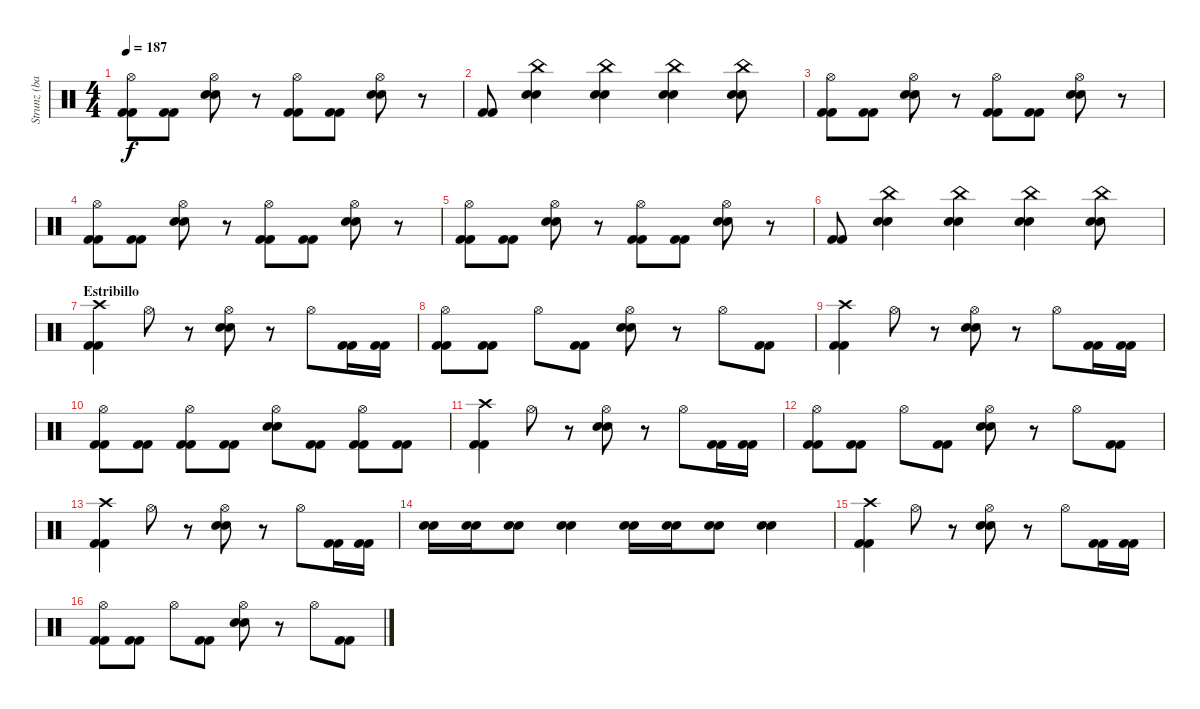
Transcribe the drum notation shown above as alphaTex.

\track ("Strunz (bateria)" "Strunz (ba") {instrument percussion}
\staff {score}
\articulation defaults
\ts (4 4)
\tempo 187
\clef neutral
\ks c
("Hi-Hat (open)" "Kick (hit) 2" "Kick (hit) 2").8{dy f} ("Kick (hit) 2" "Kick (hit) 2").8 ("Hi-Hat (open)" "Snare (hit) 2" "Snare (hit) 2").8 r.8 ("Hi-Hat (open)" "Kick (hit) 2" "Kick (hit) 2").8 ("Kick (hit) 2" "Kick (hit) 2").8 ("Hi-Hat (open)" "Snare (hit) 2" "Snare (hit) 2").8 r.8 |
("Kick (hit) 2" "Kick (hit) 2").8 ("China (hit)" "Snare (hit) 2" "Snare (hit) 2").4 ("China (hit)" "Snare (hit) 2" "Snare (hit) 2").4 ("China (hit)" "Snare (hit) 2" "Snare (hit) 2").4 ("China (hit)" "Snare (hit) 2" "Snare (hit) 2").8 |
("Hi-Hat (open)" "Kick (hit) 2" "Kick (hit) 2").8 ("Kick (hit) 2" "Kick (hit) 2").8 ("Hi-Hat (open)" "Snare (hit) 2" "Snare (hit) 2").8 r.8 ("Hi-Hat (open)" "Kick (hit) 2" "Kick (hit) 2").8 ("Kick (hit) 2" "Kick (hit) 2").8 ("Hi-Hat (open)" "Snare (hit) 2" "Snare (hit) 2").8 r.8 |
("Hi-Hat (open)" "Kick (hit) 2" "Kick (hit) 2").8 ("Kick (hit) 2" "Kick (hit) 2").8 ("Hi-Hat (open)" "Snare (hit) 2" "Snare (hit) 2").8 r.8 ("Hi-Hat (open)" "Kick (hit) 2" "Kick (hit) 2").8 ("Kick (hit) 2" "Kick (hit) 2").8 ("Hi-Hat (open)" "Snare (hit) 2" "Snare (hit) 2").8 r.8 |
("Hi-Hat (open)" "Kick (hit) 2" "Kick (hit) 2").8 ("Kick (hit) 2" "Kick (hit) 2").8 ("Hi-Hat (open)" "Snare (hit) 2" "Snare (hit) 2").8 r.8 ("Hi-Hat (open)" "Kick (hit) 2" "Kick (hit) 2").8 ("Kick (hit) 2" "Kick (hit) 2").8 ("Hi-Hat (open)" "Snare (hit) 2" "Snare (hit) 2").8 r.8 |
("Kick (hit) 2" "Kick (hit) 2").8 ("China (hit)" "Snare (hit) 2" "Snare (hit) 2").4 ("China (hit)" "Snare (hit) 2" "Snare (hit) 2").4 ("China (hit)" "Snare (hit) 2" "Snare (hit) 2").4 ("China (hit)" "Snare (hit) 2" "Snare (hit) 2").8 |
\section ("" "Estribillo")
("Crash high (hit)" "Kick (hit) 2" "Kick (hit) 2").4 "Hi-Hat (open)".8 r.8 ("Hi-Hat (open)" "Snare (hit) 2" "Snare (hit) 2").8 r.8 "Hi-Hat (open)".8 ("Kick (hit) 2" "Kick (hit) 2").16 ("Kick (hit) 2" "Kick (hit) 2").16 |
("Hi-Hat (open)" "Kick (hit) 2" "Kick (hit) 2").8 ("Kick (hit) 2" "Kick (hit) 2").8 "Hi-Hat (open)".8 ("Kick (hit) 2" "Kick (hit) 2").8 ("Hi-Hat (open)" "Snare (hit) 2" "Snare (hit) 2").8 r.8 "Hi-Hat (open)".8 ("Kick (hit) 2" "Kick (hit) 2").8 |
("Crash high (hit)" "Kick (hit) 2" "Kick (hit) 2").4 "Hi-Hat (open)".8 r.8 ("Hi-Hat (open)" "Snare (hit) 2" "Snare (hit) 2").8 r.8 "Hi-Hat (open)".8 ("Kick (hit) 2" "Kick (hit) 2").16 ("Kick (hit) 2" "Kick (hit) 2").16 |
("Hi-Hat (open)" "Kick (hit) 2" "Kick (hit) 2").8 ("Kick (hit) 2" "Kick (hit) 2").8 ("Hi-Hat (open)" "Kick (hit) 2" "Kick (hit) 2").8 ("Kick (hit) 2" "Kick (hit) 2").8 ("Hi-Hat (open)" "Snare (hit) 2" "Snare (hit) 2").8 ("Kick (hit) 2" "Kick (hit) 2").8 ("Hi-Hat (open)" "Kick (hit) 2" "Kick (hit) 2").8 ("Kick (hit) 2" "Kick (hit) 2").8 |
("Crash high (hit)" "Kick (hit) 2" "Kick (hit) 2").4 "Hi-Hat (open)".8 r.8 ("Hi-Hat (open)" "Snare (hit) 2" "Snare (hit) 2").8 r.8 "Hi-Hat (open)".8 ("Kick (hit) 2" "Kick (hit) 2").16 ("Kick (hit) 2" "Kick (hit) 2").16 |
("Hi-Hat (open)" "Kick (hit) 2" "Kick (hit) 2").8 ("Kick (hit) 2" "Kick (hit) 2").8 "Hi-Hat (open)".8 ("Kick (hit) 2" "Kick (hit) 2").8 ("Hi-Hat (open)" "Snare (hit) 2" "Snare (hit) 2").8 r.8 "Hi-Hat (open)".8 ("Kick (hit) 2" "Kick (hit) 2").8 |
("Crash high (hit)" "Kick (hit) 2" "Kick (hit) 2").4 "Hi-Hat (open)".8 r.8 ("Hi-Hat (open)" "Snare (hit) 2" "Snare (hit) 2").8 r.8 "Hi-Hat (open)".8 ("Kick (hit) 2" "Kick (hit) 2").16 ("Kick (hit) 2" "Kick (hit) 2").16 |
("Electric Snare (hit)" "Electric Snare (hit)").16 ("Electric Snare (hit)" "Electric Snare (hit)").16 ("Electric Snare (hit)" "Electric Snare (hit)").8 ("Electric Snare (hit)" "Electric Snare (hit)").4 ("Electric Snare (hit)" "Electric Snare (hit)").16 ("Electric Snare (hit)" "Electric Snare (hit)").16 ("Electric Snare (hit)" "Electric Snare (hit)").8 ("Electric Snare (hit)" "Electric Snare (hit)").4 |
("Crash high (hit)" "Kick (hit) 2" "Kick (hit) 2").4 "Hi-Hat (open)".8 r.8 ("Hi-Hat (open)" "Snare (hit) 2" "Snare (hit) 2").8 r.8 "Hi-Hat (open)".8 ("Kick (hit) 2" "Kick (hit) 2").16 ("Kick (hit) 2" "Kick (hit) 2").16 |
("Hi-Hat (open)" "Kick (hit) 2" "Kick (hit) 2").8 ("Kick (hit) 2" "Kick (hit) 2").8 "Hi-Hat (open)".8 ("Kick (hit) 2" "Kick (hit) 2").8 ("Hi-Hat (open)" "Snare (hit) 2" "Snare (hit) 2").8 r.8 "Hi-Hat (open)".8 ("Kick (hit) 2" "Kick (hit) 2").8
